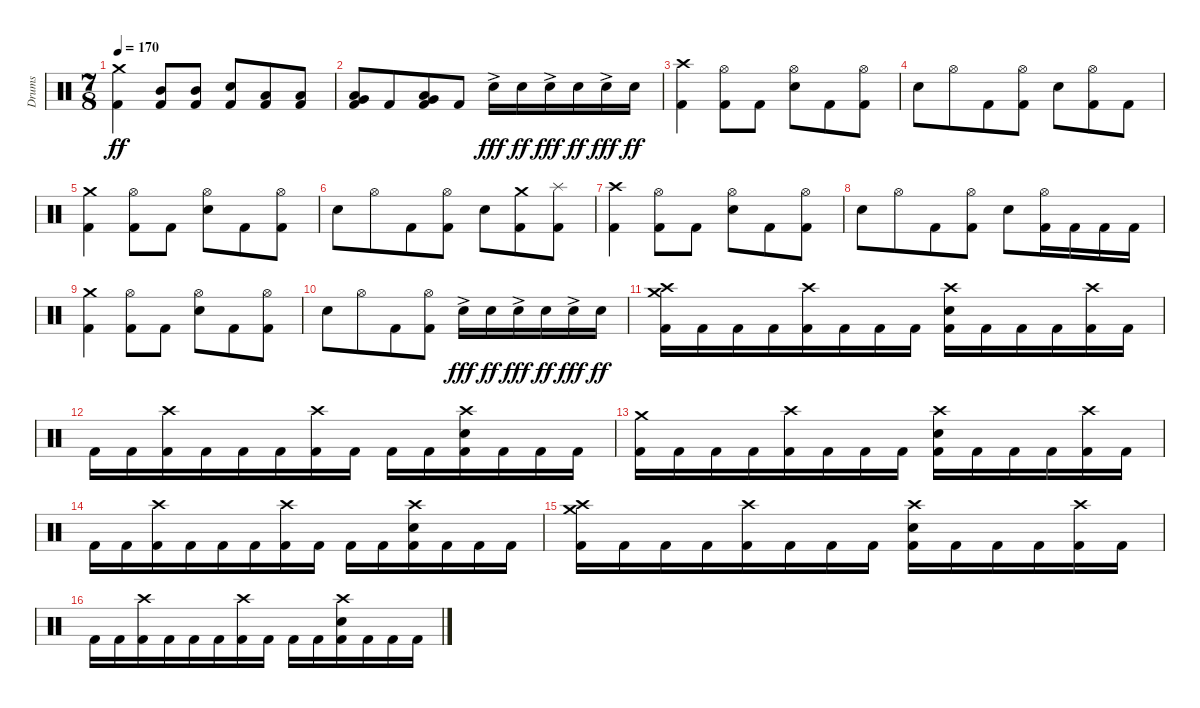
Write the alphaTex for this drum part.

\track ("Drums" "Drums") {instrument percussion}
\staff {score}
\articulation defaults
\ts (7 8)
\tempo 170
\clef neutral
\ks c
("Crash medium (hit)" "Kick (hit) 2").4{dy ff} ("Mid Tom (hit)" "Kick (hit) 2").8 ("Mid Tom (hit)" "Kick (hit) 2").8 ("Electric Snare (hit)" "Kick (hit) 2").8 ("Low Tom (hit)" "Kick (hit) 2").8 ("Low Tom (hit)" "Kick (hit) 2").8 |
("Low Tom (hit)" "Very Low Tom (hit)" "Kick (hit) 2").8 "Kick (hit) 2".8 ("Low Tom (hit)" "Very Low Tom (hit)" "Kick (hit) 2").8 "Kick (hit) 2".8 "Electric Snare (hit)"{ac}.16{dy fff} "Electric Snare (hit)".16{dy ff} "Electric Snare (hit)"{ac}.16{dy fff} "Electric Snare (hit)".16{dy ff} "Electric Snare (hit)"{ac}.16{dy fff} "Electric Snare (hit)".16{dy ff} |
("Crash high (hit)" "Kick (hit) 2").4 ("Hi-Hat (open)" "Kick (hit) 2").8 "Kick (hit) 2".8 ("Hi-Hat (open)" "Electric Snare (hit)").8 "Kick (hit) 2".8 ("Hi-Hat (open)" "Kick (hit) 2").8 |
"Electric Snare (hit)".8 "Hi-Hat (open)".8 "Kick (hit) 2".8 ("Hi-Hat (open)" "Kick (hit) 2").8 "Electric Snare (hit)".8 ("Hi-Hat (open)" "Kick (hit) 2").8 "Kick (hit) 2".8 |
("Crash medium (hit)" "Kick (hit) 2").4 ("Hi-Hat (open)" "Kick (hit) 2").8 "Kick (hit) 2".8 ("Hi-Hat (open)" "Electric Snare (hit)").8 "Kick (hit) 2".8 ("Hi-Hat (open)" "Kick (hit) 2").8 |
"Electric Snare (hit)".8 "Hi-Hat (open)".8 "Kick (hit) 2".8 ("Hi-Hat (open)" "Kick (hit) 2").8 "Electric Snare (hit)".8 ("Crash medium (hit)" "Kick (hit) 2").8 ("Splash (hit)" "Kick (hit) 2").8 |
("Crash high (hit)" "Kick (hit) 2").4 ("Hi-Hat (open)" "Kick (hit) 2").8 "Kick (hit) 2".8 ("Hi-Hat (open)" "Electric Snare (hit)").8 "Kick (hit) 2".8 ("Hi-Hat (open)" "Kick (hit) 2").8 |
"Electric Snare (hit)".8 "Hi-Hat (open)".8 "Kick (hit) 2".8 ("Hi-Hat (open)" "Kick (hit) 2").8 "Electric Snare (hit)".8 ("Hi-Hat (open)" "Kick (hit) 2").16 "Kick (hit) 2".16 "Kick (hit) 2".16 "Kick (hit) 2".16 |
("Crash medium (hit)" "Kick (hit) 2").4 ("Hi-Hat (open)" "Kick (hit) 2").8 "Kick (hit) 2".8 ("Hi-Hat (open)" "Electric Snare (hit)").8 "Kick (hit) 2".8 ("Hi-Hat (open)" "Kick (hit) 2").8 |
"Electric Snare (hit)".8 "Hi-Hat (open)".8 "Kick (hit) 2".8 ("Hi-Hat (open)" "Kick (hit) 2").8 "Electric Snare (hit)"{ac}.16{dy fff} "Electric Snare (hit)".16{dy ff} "Electric Snare (hit)"{ac}.16{dy fff} "Electric Snare (hit)".16{dy ff} "Electric Snare (hit)"{ac}.16{dy fff} "Electric Snare (hit)".16{dy ff} |
("Crash medium (hit)" "Crash high (hit)" "Kick (hit) 2").16 "Kick (hit) 2".16 "Kick (hit) 2".16 "Kick (hit) 2".16 ("Crash high (hit)" "Kick (hit) 2").16 "Kick (hit) 2".16 "Kick (hit) 2".16 "Kick (hit) 2".16 ("Crash high (hit)" "Electric Snare (hit)" "Kick (hit) 2").16 "Kick (hit) 2".16 "Kick (hit) 2".16 "Kick (hit) 2".16 ("Crash high (hit)" "Kick (hit) 2").16 "Kick (hit) 2".16 |
"Kick (hit) 2".16 "Kick (hit) 2".16 ("Crash high (hit)" "Kick (hit) 2").16 "Kick (hit) 2".16 "Kick (hit) 2".16 "Kick (hit) 2".16 ("Crash high (hit)" "Kick (hit) 2").16 "Kick (hit) 2".16 "Kick (hit) 2".16 "Kick (hit) 2".16 ("Crash high (hit)" "Electric Snare (hit)" "Kick (hit) 2").16 "Kick (hit) 2".16 "Kick (hit) 2".16 "Kick (hit) 2".16 |
("Crash medium (hit)" "Kick (hit) 2").16 "Kick (hit) 2".16 "Kick (hit) 2".16 "Kick (hit) 2".16 ("Crash high (hit)" "Kick (hit) 2").16 "Kick (hit) 2".16 "Kick (hit) 2".16 "Kick (hit) 2".16 ("Crash high (hit)" "Electric Snare (hit)" "Kick (hit) 2").16 "Kick (hit) 2".16 "Kick (hit) 2".16 "Kick (hit) 2".16 ("Crash high (hit)" "Kick (hit) 2").16 "Kick (hit) 2".16 |
"Kick (hit) 2".16 "Kick (hit) 2".16 ("Crash high (hit)" "Kick (hit) 2").16 "Kick (hit) 2".16 "Kick (hit) 2".16 "Kick (hit) 2".16 ("Crash high (hit)" "Kick (hit) 2").16 "Kick (hit) 2".16 "Kick (hit) 2".16 "Kick (hit) 2".16 ("Crash high (hit)" "Electric Snare (hit)" "Kick (hit) 2").16 "Kick (hit) 2".16 "Kick (hit) 2".16 "Kick (hit) 2".16 |
("Crash medium (hit)" "Crash high (hit)" "Kick (hit) 2").16 "Kick (hit) 2".16 "Kick (hit) 2".16 "Kick (hit) 2".16 ("Crash high (hit)" "Kick (hit) 2").16 "Kick (hit) 2".16 "Kick (hit) 2".16 "Kick (hit) 2".16 ("Crash high (hit)" "Electric Snare (hit)" "Kick (hit) 2").16 "Kick (hit) 2".16 "Kick (hit) 2".16 "Kick (hit) 2".16 ("Crash high (hit)" "Kick (hit) 2").16 "Kick (hit) 2".16 |
"Kick (hit) 2".16 "Kick (hit) 2".16 ("Crash high (hit)" "Kick (hit) 2").16 "Kick (hit) 2".16 "Kick (hit) 2".16 "Kick (hit) 2".16 ("Crash high (hit)" "Kick (hit) 2").16 "Kick (hit) 2".16 "Kick (hit) 2".16 "Kick (hit) 2".16 ("Crash high (hit)" "Electric Snare (hit)" "Kick (hit) 2").16 "Kick (hit) 2".16 "Kick (hit) 2".16 "Kick (hit) 2".16
